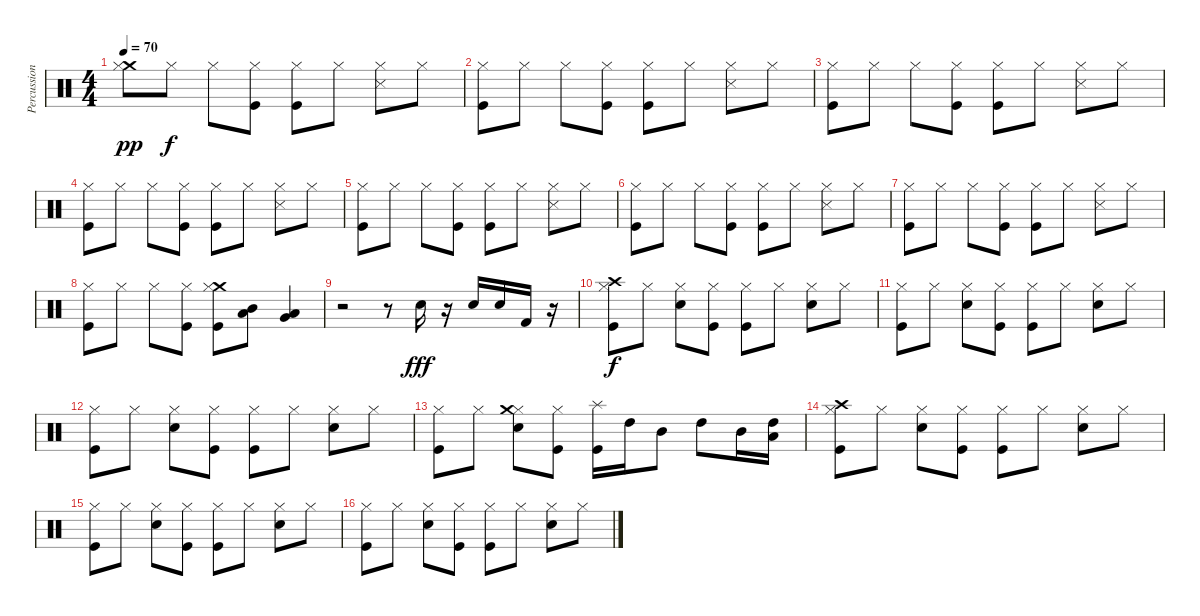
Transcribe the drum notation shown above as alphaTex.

\track ("Percussions" "Percussion") {instrument percussion}
\staff {score}
\articulation defaults
\ts (4 4)
\tempo 70
\clef neutral
\ks c
("Crash medium (hit)" "Hi-Hat (closed)").8{dy pp} "Hi-Hat (closed)".8{dy f} "Hi-Hat (closed)".8 ("Kick (hit)" "Hi-Hat (closed)").8 ("Kick (hit)" "Hi-Hat (closed)").8 "Hi-Hat (closed)".8 ("Snare (side stick) 3" "Hi-Hat (closed)").8 "Hi-Hat (closed)".8 |
("Kick (hit)" "Hi-Hat (closed)").8 "Hi-Hat (closed)".8 "Hi-Hat (closed)".8 ("Kick (hit)" "Hi-Hat (closed)").8 ("Kick (hit)" "Hi-Hat (closed)").8 "Hi-Hat (closed)".8 ("Snare (side stick) 3" "Hi-Hat (closed)").8 "Hi-Hat (closed)".8 |
("Kick (hit)" "Hi-Hat (closed)").8 "Hi-Hat (closed)".8 "Hi-Hat (closed)".8 ("Kick (hit)" "Hi-Hat (closed)").8 ("Kick (hit)" "Hi-Hat (closed)").8 "Hi-Hat (closed)".8 ("Snare (side stick) 3" "Hi-Hat (closed)").8 "Hi-Hat (closed)".8 |
("Kick (hit)" "Hi-Hat (closed)").8 "Hi-Hat (closed)".8 "Hi-Hat (closed)".8 ("Kick (hit)" "Hi-Hat (closed)").8 ("Kick (hit)" "Hi-Hat (closed)").8 "Hi-Hat (closed)".8 ("Snare (side stick) 3" "Hi-Hat (closed)").8 "Hi-Hat (closed)".8 |
("Kick (hit)" "Hi-Hat (closed)").8 "Hi-Hat (closed)".8 "Hi-Hat (closed)".8 ("Kick (hit)" "Hi-Hat (closed)").8 ("Kick (hit)" "Hi-Hat (closed)").8 "Hi-Hat (closed)".8 ("Snare (side stick) 3" "Hi-Hat (closed)").8 "Hi-Hat (closed)".8 |
("Kick (hit)" "Hi-Hat (closed)").8 "Hi-Hat (closed)".8 "Hi-Hat (closed)".8 ("Kick (hit)" "Hi-Hat (closed)").8 ("Kick (hit)" "Hi-Hat (closed)").8 "Hi-Hat (closed)".8 ("Snare (side stick) 3" "Hi-Hat (closed)").8 "Hi-Hat (closed)".8 |
("Kick (hit)" "Hi-Hat (closed)").8 "Hi-Hat (closed)".8 "Hi-Hat (closed)".8 ("Kick (hit)" "Hi-Hat (closed)").8 ("Kick (hit)" "Hi-Hat (closed)").8 "Hi-Hat (closed)".8 ("Snare (side stick) 3" "Hi-Hat (closed)").8 "Hi-Hat (closed)".8 |
("Kick (hit)" "Hi-Hat (closed)").8 "Hi-Hat (closed)".8 "Hi-Hat (closed)".8 ("Kick (hit)" "Hi-Hat (closed)").8 ("Crash medium (hit)" "Hi-Hat (closed)" "Kick (hit)").8 ("Mid Tom (hit)" "Low Tom (hit)").8 ("Low Tom (hit)" "Very Low Tom (hit)").4 |
r.2 r.8 "Electric Snare (hit)".16{dy fff} r.16 "Electric Snare (hit)".16 "Snare (hit) 2".16 "Kick (hit) 2".16 r.16 |
("Kick (hit)" "Hi-Hat (closed)" "Crash high (hit)").8{dy f} "Hi-Hat (closed)".8 ("Snare (hit) 2" "Hi-Hat (closed)").8 ("Kick (hit)" "Hi-Hat (closed)").8 ("Kick (hit)" "Hi-Hat (closed)").8 "Hi-Hat (closed)".8 ("Snare (hit) 2" "Hi-Hat (closed)").8 "Hi-Hat (closed)".8 |
("Kick (hit)" "Hi-Hat (closed)").8 "Hi-Hat (closed)".8 ("Snare (hit) 2" "Hi-Hat (closed)").8 ("Kick (hit)" "Hi-Hat (closed)").8 ("Kick (hit)" "Hi-Hat (closed)").8 "Hi-Hat (closed)".8 ("Snare (hit) 2" "Hi-Hat (closed)").8 "Hi-Hat (closed)".8 |
("Kick (hit)" "Hi-Hat (closed)").8 "Hi-Hat (closed)".8 ("Snare (hit) 2" "Hi-Hat (closed)").8 ("Kick (hit)" "Hi-Hat (closed)").8 ("Kick (hit)" "Hi-Hat (closed)").8 "Hi-Hat (closed)".8 ("Snare (hit) 2" "Hi-Hat (closed)").8 "Hi-Hat (closed)".8 |
("Kick (hit)" "Hi-Hat (closed)").8 "Hi-Hat (closed)".8 ("Snare (hit) 2" "Hi-Hat (closed)" "Crash medium (hit)").8 ("Kick (hit)" "Hi-Hat (closed)").8 ("Kick (hit)" "Splash (hit)").16 "High Tom (hit)".16 "Mid Tom (hit)".8 "High Tom (hit)".8 "Mid Tom (hit)".16 ("Low Tom (hit)" "High Tom (hit)").16 |
("Kick (hit)" "Hi-Hat (closed)" "Crash high (hit)").8 "Hi-Hat (closed)".8 ("Snare (hit) 2" "Hi-Hat (closed)").8 ("Kick (hit)" "Hi-Hat (closed)").8 ("Kick (hit)" "Hi-Hat (closed)").8 "Hi-Hat (closed)".8 ("Snare (hit) 2" "Hi-Hat (closed)").8 "Hi-Hat (closed)".8 |
("Kick (hit)" "Hi-Hat (closed)").8 "Hi-Hat (closed)".8 ("Snare (hit) 2" "Hi-Hat (closed)").8 ("Kick (hit)" "Hi-Hat (closed)").8 ("Kick (hit)" "Hi-Hat (closed)").8 "Hi-Hat (closed)".8 ("Snare (hit) 2" "Hi-Hat (closed)").8 "Hi-Hat (closed)".8 |
("Kick (hit)" "Hi-Hat (closed)").8 "Hi-Hat (closed)".8 ("Snare (hit) 2" "Hi-Hat (closed)").8 ("Kick (hit)" "Hi-Hat (closed)").8 ("Kick (hit)" "Hi-Hat (closed)").8 "Hi-Hat (closed)".8 ("Snare (hit) 2" "Hi-Hat (closed)").8 "Hi-Hat (closed)".8
